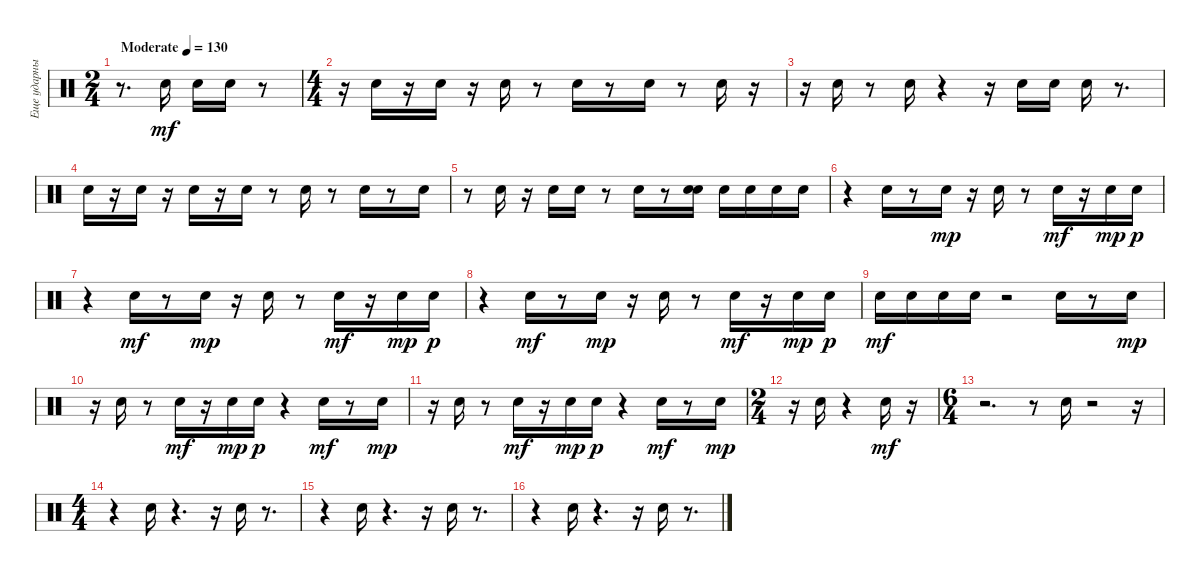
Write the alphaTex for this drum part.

\track ("Еще ударные" "Еще ударны") {instrument percussion}
\staff {score}
\articulation defaults
\ts (2 4)
\tempo (130 "Moderate")
\clef neutral
\ks c
r.8{d dy mf} "Electric Snare (hit)".16 "Electric Snare (hit)".16 "Electric Snare (hit)".16 r.8 |
\ts (4 4)
r.16 "Electric Snare (hit)".16 r.16 "Electric Snare (hit)".16 r.16 "Electric Snare (hit)".16 r.8 "Electric Snare (hit)".16 r.8 "Electric Snare (hit)".16 r.8 "Electric Snare (hit)".16 r.16 |
r.16 "Electric Snare (hit)".16 r.8 "Electric Snare (hit)".16 r.4 r.16 "Electric Snare (hit)".16 "Electric Snare (hit)".16 "Electric Snare (hit)".16 r.8{d} |
"Electric Snare (hit)".16 r.16 "Electric Snare (hit)".16 r.16 "Electric Snare (hit)".16 r.16 "Electric Snare (hit)".16 r.8 "Electric Snare (hit)".16 r.8 "Electric Snare (hit)".16 r.8 "Electric Snare (hit)".16 |
r.8 "Electric Snare (hit)".16 r.16 "Electric Snare (hit)".16 "Electric Snare (hit)".16 r.8 "Electric Snare (hit)".16 r.8 ("Electric Snare (hit)" "Electric Snare (hit)").16 "Electric Snare (hit)".16 "Electric Snare (hit)".16 "Electric Snare (hit)".16 "Electric Snare (hit)".16 |
r.4 "Electric Snare (hit)".16 r.8 "Electric Snare (hit)".16{dy mp} r.16 "Electric Snare (hit)".16 r.8 "Electric Snare (hit)".16{dy mf} r.16 "Electric Snare (hit)".16{dy mp} "Electric Snare (hit)".16{dy p} |
r.4 "Electric Snare (hit)".16{dy mf} r.8 "Electric Snare (hit)".16{dy mp} r.16 "Electric Snare (hit)".16 r.8 "Electric Snare (hit)".16{dy mf} r.16 "Electric Snare (hit)".16{dy mp} "Electric Snare (hit)".16{dy p} |
r.4 "Electric Snare (hit)".16{dy mf} r.8 "Electric Snare (hit)".16{dy mp} r.16 "Electric Snare (hit)".16 r.8 "Electric Snare (hit)".16{dy mf} r.16 "Electric Snare (hit)".16{dy mp} "Electric Snare (hit)".16{dy p} |
"Electric Snare (hit)".16{dy mf} "Electric Snare (hit)".16 "Electric Snare (hit)".16 "Electric Snare (hit)".16 r.2 "Electric Snare (hit)".16 r.8 "Electric Snare (hit)".16{dy mp} |
r.16 "Electric Snare (hit)".16 r.8 "Electric Snare (hit)".16{dy mf} r.16 "Electric Snare (hit)".16{dy mp} "Electric Snare (hit)".16{dy p} r.4 "Electric Snare (hit)".16{dy mf} r.8 "Electric Snare (hit)".16{dy mp} |
r.16 "Electric Snare (hit)".16 r.8 "Electric Snare (hit)".16{dy mf} r.16 "Electric Snare (hit)".16{dy mp} "Electric Snare (hit)".16{dy p} r.4 "Electric Snare (hit)".16{dy mf} r.8 "Electric Snare (hit)".16{dy mp} |
\ts (2 4)
r.16 "Electric Snare (hit)".16 r.4 "Electric Snare (hit)".16{dy mf} r.16 |
\ts (6 4)
r.2{d} r.8 "Electric Snare (hit)".16 r.2 r.16 |
\ts (4 4)
r.4 "Electric Snare (hit)".16 r.4{d} r.16 "Electric Snare (hit)".16 r.8{d} |
r.4 "Electric Snare (hit)".16 r.4{d} r.16 "Electric Snare (hit)".16 r.8{d} |
r.4 "Electric Snare (hit)".16 r.4{d} r.16 "Electric Snare (hit)".16 r.8{d}
